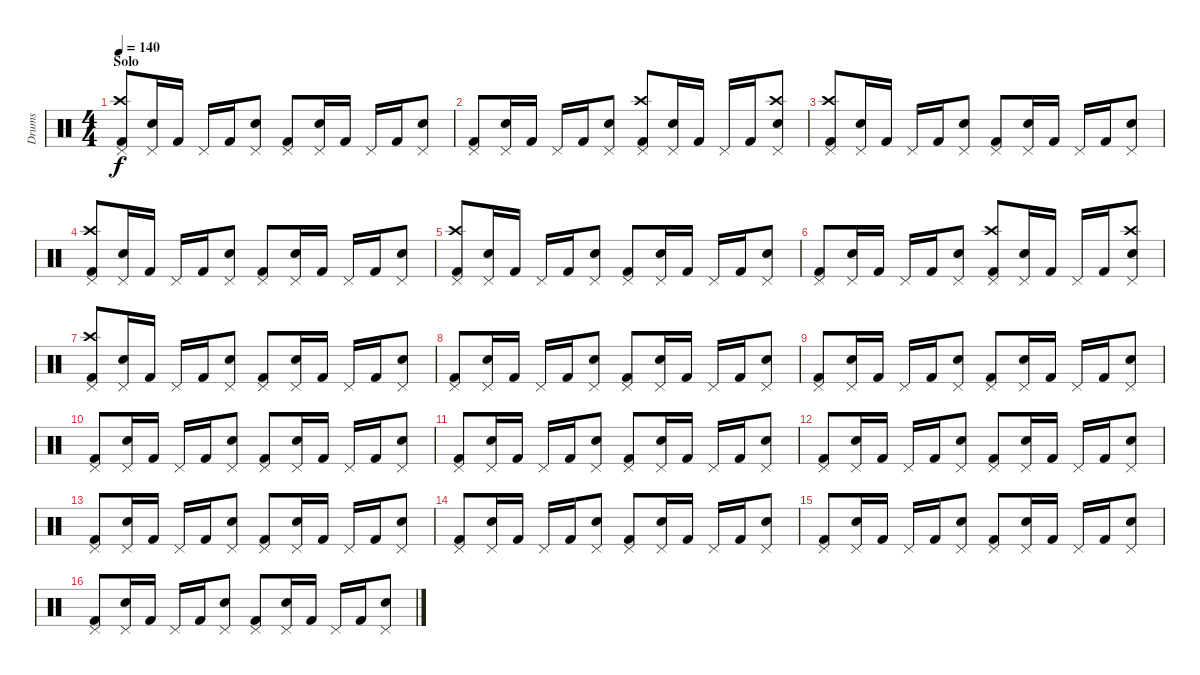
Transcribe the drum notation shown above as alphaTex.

\track ("Drums" "Drums") {instrument percussion}
\staff {score}
\articulation defaults
\ts (4 4)
\section ("" "Solo")
\tempo 140
\clef neutral
\ks c
("Pedal Hi-Hat (hit)" "Crash high (hit)" "Kick (hit) 2").8{dy f} ("Pedal Hi-Hat (hit)" "Electric Snare (hit)").16 "Kick (hit) 2".16 "Pedal Hi-Hat (hit)".16 "Kick (hit) 2".16 ("Pedal Hi-Hat (hit)" "Electric Snare (hit)").8 ("Pedal Hi-Hat (hit)" "Kick (hit) 2").8 ("Pedal Hi-Hat (hit)" "Electric Snare (hit)").16 "Kick (hit) 2".16 "Pedal Hi-Hat (hit)".16 "Kick (hit) 2".16 ("Pedal Hi-Hat (hit)" "Electric Snare (hit)").8 |
("Pedal Hi-Hat (hit)" "Kick (hit) 2").8 ("Pedal Hi-Hat (hit)" "Electric Snare (hit)").16 "Kick (hit) 2".16 "Pedal Hi-Hat (hit)".16 "Kick (hit) 2".16 ("Pedal Hi-Hat (hit)" "Electric Snare (hit)").8 ("Pedal Hi-Hat (hit)" "Crash high (hit)" "Kick (hit) 2").8 ("Pedal Hi-Hat (hit)" "Electric Snare (hit)").16 "Kick (hit) 2".16 "Pedal Hi-Hat (hit)".16 "Kick (hit) 2".16 ("Pedal Hi-Hat (hit)" "Electric Snare (hit)" "Crash high (hit)").8 |
("Pedal Hi-Hat (hit)" "Crash high (hit)" "Kick (hit) 2").8 ("Pedal Hi-Hat (hit)" "Electric Snare (hit)").16 "Kick (hit) 2".16 "Pedal Hi-Hat (hit)".16 "Kick (hit) 2".16 ("Pedal Hi-Hat (hit)" "Electric Snare (hit)").8 ("Pedal Hi-Hat (hit)" "Kick (hit) 2").8 ("Pedal Hi-Hat (hit)" "Electric Snare (hit)").16 "Kick (hit) 2".16 "Pedal Hi-Hat (hit)".16 "Kick (hit) 2".16 ("Pedal Hi-Hat (hit)" "Electric Snare (hit)").8 |
("Pedal Hi-Hat (hit)" "Crash high (hit)" "Kick (hit) 2").8 ("Pedal Hi-Hat (hit)" "Electric Snare (hit)").16 "Kick (hit) 2".16 "Pedal Hi-Hat (hit)".16 "Kick (hit) 2".16 ("Pedal Hi-Hat (hit)" "Electric Snare (hit)").8 ("Pedal Hi-Hat (hit)" "Kick (hit) 2").8 ("Pedal Hi-Hat (hit)" "Electric Snare (hit)").16 "Kick (hit) 2".16 "Pedal Hi-Hat (hit)".16 "Kick (hit) 2".16 ("Pedal Hi-Hat (hit)" "Electric Snare (hit)").8 |
("Pedal Hi-Hat (hit)" "Crash high (hit)" "Kick (hit) 2").8 ("Pedal Hi-Hat (hit)" "Electric Snare (hit)").16 "Kick (hit) 2".16 "Pedal Hi-Hat (hit)".16 "Kick (hit) 2".16 ("Pedal Hi-Hat (hit)" "Electric Snare (hit)").8 ("Pedal Hi-Hat (hit)" "Kick (hit) 2").8 ("Pedal Hi-Hat (hit)" "Electric Snare (hit)").16 "Kick (hit) 2".16 "Pedal Hi-Hat (hit)".16 "Kick (hit) 2".16 ("Pedal Hi-Hat (hit)" "Electric Snare (hit)").8 |
("Pedal Hi-Hat (hit)" "Kick (hit) 2").8 ("Pedal Hi-Hat (hit)" "Electric Snare (hit)").16 "Kick (hit) 2".16 "Pedal Hi-Hat (hit)".16 "Kick (hit) 2".16 ("Pedal Hi-Hat (hit)" "Electric Snare (hit)").8 ("Pedal Hi-Hat (hit)" "Crash high (hit)" "Kick (hit) 2").8 ("Pedal Hi-Hat (hit)" "Electric Snare (hit)").16 "Kick (hit) 2".16 "Pedal Hi-Hat (hit)".16 "Kick (hit) 2".16 ("Pedal Hi-Hat (hit)" "Electric Snare (hit)" "Crash high (hit)").8 |
("Pedal Hi-Hat (hit)" "Crash high (hit)" "Kick (hit) 2").8 ("Pedal Hi-Hat (hit)" "Electric Snare (hit)").16 "Kick (hit) 2".16 "Pedal Hi-Hat (hit)".16 "Kick (hit) 2".16 ("Pedal Hi-Hat (hit)" "Electric Snare (hit)").8 ("Pedal Hi-Hat (hit)" "Kick (hit) 2").8 ("Pedal Hi-Hat (hit)" "Electric Snare (hit)").16 "Kick (hit) 2".16 "Pedal Hi-Hat (hit)".16 "Kick (hit) 2".16 ("Pedal Hi-Hat (hit)" "Electric Snare (hit)").8 |
("Pedal Hi-Hat (hit)" "Kick (hit) 2").8 ("Pedal Hi-Hat (hit)" "Electric Snare (hit)").16 "Kick (hit) 2".16 "Pedal Hi-Hat (hit)".16 "Kick (hit) 2".16 ("Pedal Hi-Hat (hit)" "Electric Snare (hit)").8 ("Pedal Hi-Hat (hit)" "Kick (hit) 2").8 ("Pedal Hi-Hat (hit)" "Electric Snare (hit)").16 "Kick (hit) 2".16 "Pedal Hi-Hat (hit)".16 "Kick (hit) 2".16 ("Pedal Hi-Hat (hit)" "Electric Snare (hit)").8 |
("Pedal Hi-Hat (hit)" "Kick (hit) 2").8 ("Pedal Hi-Hat (hit)" "Electric Snare (hit)").16 "Kick (hit) 2".16 "Pedal Hi-Hat (hit)".16 "Kick (hit) 2".16 ("Pedal Hi-Hat (hit)" "Electric Snare (hit)").8 ("Pedal Hi-Hat (hit)" "Kick (hit) 2").8 ("Pedal Hi-Hat (hit)" "Electric Snare (hit)").16 "Kick (hit) 2".16 "Pedal Hi-Hat (hit)".16 "Kick (hit) 2".16 ("Pedal Hi-Hat (hit)" "Electric Snare (hit)").8 |
("Pedal Hi-Hat (hit)" "Kick (hit) 2").8 ("Pedal Hi-Hat (hit)" "Electric Snare (hit)").16 "Kick (hit) 2".16 "Pedal Hi-Hat (hit)".16 "Kick (hit) 2".16 ("Pedal Hi-Hat (hit)" "Electric Snare (hit)").8 ("Pedal Hi-Hat (hit)" "Kick (hit) 2").8 ("Pedal Hi-Hat (hit)" "Electric Snare (hit)").16 "Kick (hit) 2".16 "Pedal Hi-Hat (hit)".16 "Kick (hit) 2".16 ("Pedal Hi-Hat (hit)" "Electric Snare (hit)").8 |
("Pedal Hi-Hat (hit)" "Kick (hit) 2").8 ("Pedal Hi-Hat (hit)" "Electric Snare (hit)").16 "Kick (hit) 2".16 "Pedal Hi-Hat (hit)".16 "Kick (hit) 2".16 ("Pedal Hi-Hat (hit)" "Electric Snare (hit)").8 ("Pedal Hi-Hat (hit)" "Kick (hit) 2").8 ("Pedal Hi-Hat (hit)" "Electric Snare (hit)").16 "Kick (hit) 2".16 "Pedal Hi-Hat (hit)".16 "Kick (hit) 2".16 ("Pedal Hi-Hat (hit)" "Electric Snare (hit)").8 |
("Pedal Hi-Hat (hit)" "Kick (hit) 2").8 ("Pedal Hi-Hat (hit)" "Electric Snare (hit)").16 "Kick (hit) 2".16 "Pedal Hi-Hat (hit)".16 "Kick (hit) 2".16 ("Pedal Hi-Hat (hit)" "Electric Snare (hit)").8 ("Pedal Hi-Hat (hit)" "Kick (hit) 2").8 ("Pedal Hi-Hat (hit)" "Electric Snare (hit)").16 "Kick (hit) 2".16 "Pedal Hi-Hat (hit)".16 "Kick (hit) 2".16 ("Pedal Hi-Hat (hit)" "Electric Snare (hit)").8 |
("Pedal Hi-Hat (hit)" "Kick (hit) 2").8 ("Pedal Hi-Hat (hit)" "Electric Snare (hit)").16 "Kick (hit) 2".16 "Pedal Hi-Hat (hit)".16 "Kick (hit) 2".16 ("Pedal Hi-Hat (hit)" "Electric Snare (hit)").8 ("Pedal Hi-Hat (hit)" "Kick (hit) 2").8 ("Pedal Hi-Hat (hit)" "Electric Snare (hit)").16 "Kick (hit) 2".16 "Pedal Hi-Hat (hit)".16 "Kick (hit) 2".16 ("Pedal Hi-Hat (hit)" "Electric Snare (hit)").8 |
("Pedal Hi-Hat (hit)" "Kick (hit) 2").8 ("Pedal Hi-Hat (hit)" "Electric Snare (hit)").16 "Kick (hit) 2".16 "Pedal Hi-Hat (hit)".16 "Kick (hit) 2".16 ("Pedal Hi-Hat (hit)" "Electric Snare (hit)").8 ("Pedal Hi-Hat (hit)" "Kick (hit) 2").8 ("Pedal Hi-Hat (hit)" "Electric Snare (hit)").16 "Kick (hit) 2".16 "Pedal Hi-Hat (hit)".16 "Kick (hit) 2".16 ("Pedal Hi-Hat (hit)" "Electric Snare (hit)").8 |
("Pedal Hi-Hat (hit)" "Kick (hit) 2").8 ("Pedal Hi-Hat (hit)" "Electric Snare (hit)").16 "Kick (hit) 2".16 "Pedal Hi-Hat (hit)".16 "Kick (hit) 2".16 ("Pedal Hi-Hat (hit)" "Electric Snare (hit)").8 ("Pedal Hi-Hat (hit)" "Kick (hit) 2").8 ("Pedal Hi-Hat (hit)" "Electric Snare (hit)").16 "Kick (hit) 2".16 "Pedal Hi-Hat (hit)".16 "Kick (hit) 2".16 ("Pedal Hi-Hat (hit)" "Electric Snare (hit)").8 |
("Pedal Hi-Hat (hit)" "Kick (hit) 2").8 ("Pedal Hi-Hat (hit)" "Electric Snare (hit)").16 "Kick (hit) 2".16 "Pedal Hi-Hat (hit)".16 "Kick (hit) 2".16 ("Pedal Hi-Hat (hit)" "Electric Snare (hit)").8 ("Pedal Hi-Hat (hit)" "Kick (hit) 2").8 ("Pedal Hi-Hat (hit)" "Electric Snare (hit)").16 "Kick (hit) 2".16 "Pedal Hi-Hat (hit)".16 "Kick (hit) 2".16 ("Pedal Hi-Hat (hit)" "Electric Snare (hit)").8
